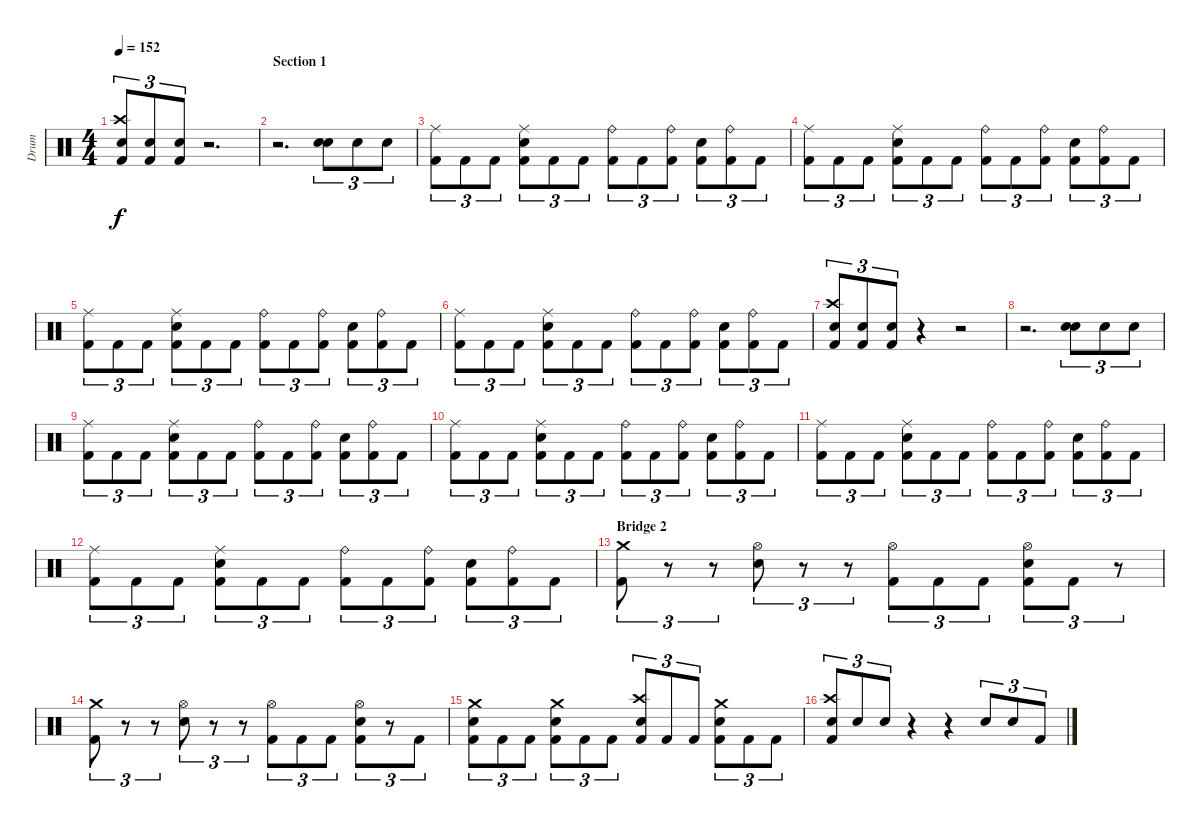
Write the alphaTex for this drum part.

\track ("Drum" "Drum") {instrument percussion}
\staff {score}
\articulation defaults
\ts (4 4)
\tempo 152
\clef neutral
\ks c
("Kick (hit) 2" "Crash high (hit)" "Electric Snare (hit)").8{tu (3 2) dy f} ("Electric Snare (hit)" "Kick (hit) 2").8{tu (3 2)} ("Kick (hit) 2" "Electric Snare (hit)").8{tu (3 2)} r.2{d} |
\section ("" "Section 1")
r.2{d} ("Electric Snare (hit)" "Electric Snare (hit)").8{tu (3 2)} "Electric Snare (hit)".8{tu (3 2)} "Electric Snare (hit)".8{tu (3 2)} |
("Kick (hit) 2" "Ride (middle)").8{tu (3 2)} "Kick (hit) 2".8{tu (3 2)} "Kick (hit) 2".8{tu (3 2)} ("Ride (middle)" "Electric Snare (hit)" "Kick (hit) 2").8{tu (3 2)} "Kick (hit) 2".8{tu (3 2)} "Kick (hit) 2".8{tu (3 2)} ("Kick (hit) 2" "Ride (bell)").8{tu (3 2)} "Kick (hit) 2".8{tu (3 2)} ("Kick (hit) 2" "Ride (bell)").8{tu (3 2)} ("Electric Snare (hit)" "Kick (hit) 2").8{tu (3 2)} ("Kick (hit) 2" "Ride (bell)").8{tu (3 2)} "Kick (hit) 2".8{tu (3 2)} |
("Ride (middle)" "Kick (hit) 2").8{tu (3 2)} "Kick (hit) 2".8{tu (3 2)} "Kick (hit) 2".8{tu (3 2)} ("Electric Snare (hit)" "Ride (middle)" "Kick (hit) 2").8{tu (3 2)} "Kick (hit) 2".8{tu (3 2)} "Kick (hit) 2".8{tu (3 2)} ("Kick (hit) 2" "Ride (bell)").8{tu (3 2)} "Kick (hit) 2".8{tu (3 2)} ("Kick (hit) 2" "Ride (bell)").8{tu (3 2)} ("Electric Snare (hit)" "Kick (hit) 2").8{tu (3 2)} ("Kick (hit) 2" "Ride (bell)").8{tu (3 2)} "Kick (hit) 2".8{tu (3 2)} |
("Kick (hit) 2" "Ride (middle)").8{tu (3 2)} "Kick (hit) 2".8{tu (3 2)} "Kick (hit) 2".8{tu (3 2)} ("Electric Snare (hit)" "Ride (middle)" "Kick (hit) 2").8{tu (3 2)} "Kick (hit) 2".8{tu (3 2)} "Kick (hit) 2".8{tu (3 2)} ("Kick (hit) 2" "Ride (bell)").8{tu (3 2)} "Kick (hit) 2".8{tu (3 2)} ("Kick (hit) 2" "Ride (bell)").8{tu (3 2)} ("Electric Snare (hit)" "Kick (hit) 2").8{tu (3 2)} ("Kick (hit) 2" "Ride (bell)").8{tu (3 2)} "Kick (hit) 2".8{tu (3 2)} |
("Ride (middle)" "Kick (hit) 2").8{tu (3 2)} "Kick (hit) 2".8{tu (3 2)} "Kick (hit) 2".8{tu (3 2)} ("Electric Snare (hit)" "Ride (middle)" "Kick (hit) 2").8{tu (3 2)} "Kick (hit) 2".8{tu (3 2)} "Kick (hit) 2".8{tu (3 2)} ("Kick (hit) 2" "Ride (bell)").8{tu (3 2)} "Kick (hit) 2".8{tu (3 2)} ("Kick (hit) 2" "Ride (bell)").8{tu (3 2)} ("Electric Snare (hit)" "Kick (hit) 2").8{tu (3 2)} ("Kick (hit) 2" "Ride (bell)").8{tu (3 2)} "Kick (hit) 2".8{tu (3 2)} |
\section ("" "")
("Crash high (hit)" "Electric Snare (hit)" "Kick (hit) 2").8{tu (3 2)} ("Electric Snare (hit)" "Kick (hit) 2").8{tu (3 2)} ("Kick (hit) 2" "Electric Snare (hit)").8{tu (3 2)} r.4 r.2 |
r.2{d} ("Electric Snare (hit)" "Electric Snare (hit)").8{tu (3 2)} "Electric Snare (hit)".8{tu (3 2)} "Electric Snare (hit)".8{tu (3 2)} |
("Kick (hit) 2" "Ride (middle)").8{tu (3 2)} "Kick (hit) 2".8{tu (3 2)} "Kick (hit) 2".8{tu (3 2)} ("Ride (middle)" "Kick (hit) 2" "Electric Snare (hit)").8{tu (3 2)} "Kick (hit) 2".8{tu (3 2)} "Kick (hit) 2".8{tu (3 2)} ("Kick (hit) 2" "Ride (bell)").8{tu (3 2)} "Kick (hit) 2".8{tu (3 2)} ("Kick (hit) 2" "Ride (bell)").8{tu (3 2)} ("Electric Snare (hit)" "Kick (hit) 2").8{tu (3 2)} ("Kick (hit) 2" "Ride (bell)").8{tu (3 2)} "Kick (hit) 2".8{tu (3 2)} |
("Kick (hit) 2" "Ride (middle)").8{tu (3 2)} "Kick (hit) 2".8{tu (3 2)} "Kick (hit) 2".8{tu (3 2)} ("Electric Snare (hit)" "Kick (hit) 2" "Ride (middle)").8{tu (3 2)} "Kick (hit) 2".8{tu (3 2)} "Kick (hit) 2".8{tu (3 2)} ("Kick (hit) 2" "Ride (bell)").8{tu (3 2)} "Kick (hit) 2".8{tu (3 2)} ("Kick (hit) 2" "Ride (bell)").8{tu (3 2)} ("Electric Snare (hit)" "Kick (hit) 2").8{tu (3 2)} ("Kick (hit) 2" "Ride (bell)").8{tu (3 2)} "Kick (hit) 2".8{tu (3 2)} |
("Kick (hit) 2" "Ride (middle)").8{tu (3 2)} "Kick (hit) 2".8{tu (3 2)} "Kick (hit) 2".8{tu (3 2)} ("Ride (middle)" "Kick (hit) 2" "Electric Snare (hit)").8{tu (3 2)} "Kick (hit) 2".8{tu (3 2)} "Kick (hit) 2".8{tu (3 2)} ("Kick (hit) 2" "Ride (bell)").8{tu (3 2)} "Kick (hit) 2".8{tu (3 2)} ("Kick (hit) 2" "Ride (bell)").8{tu (3 2)} ("Electric Snare (hit)" "Kick (hit) 2").8{tu (3 2)} ("Kick (hit) 2" "Ride (bell)").8{tu (3 2)} "Kick (hit) 2".8{tu (3 2)} |
("Ride (middle)" "Kick (hit) 2").8{tu (3 2)} "Kick (hit) 2".8{tu (3 2)} "Kick (hit) 2".8{tu (3 2)} ("Electric Snare (hit)" "Kick (hit) 2" "Ride (middle)").8{tu (3 2)} "Kick (hit) 2".8{tu (3 2)} "Kick (hit) 2".8{tu (3 2)} ("Ride (bell)" "Kick (hit) 2").8{tu (3 2)} "Kick (hit) 2".8{tu (3 2)} ("Ride (bell)" "Kick (hit) 2").8{tu (3 2)} ("Electric Snare (hit)" "Kick (hit) 2").8{tu (3 2)} ("Ride (bell)" "Kick (hit) 2").8{tu (3 2)} "Kick (hit) 2".8{tu (3 2)} |
\section ("" "Bridge 2")
("Crash medium (hit)" "Kick (hit) 2").8{tu (3 2)} r.8{tu (3 2)} r.8{tu (3 2)} ("Hi-Hat (open)" "Electric Snare (hit)").8{tu (3 2)} r.8{tu (3 2)} r.8{tu (3 2)} ("Kick (hit) 2" "Hi-Hat (open)").8{tu (3 2)} "Kick (hit) 2".8{tu (3 2)} "Kick (hit) 2".8{tu (3 2)} ("Kick (hit) 2" "Hi-Hat (open)" "Electric Snare (hit)").8{tu (3 2)} "Kick (hit) 2".8{tu (3 2)} r.8{tu (3 2)} |
("Kick (hit) 2" "Crash medium (hit)").8{tu (3 2)} r.8{tu (3 2)} r.8{tu (3 2)} ("Hi-Hat (open)" "Electric Snare (hit)").8{tu (3 2)} r.8{tu (3 2)} r.8{tu (3 2)} ("Hi-Hat (open)" "Kick (hit) 2").8{tu (3 2)} "Kick (hit) 2".8{tu (3 2)} "Kick (hit) 2".8{tu (3 2)} ("Electric Snare (hit)" "Hi-Hat (open)" "Kick (hit) 2").8{tu (3 2)} r.8{tu (3 2)} "Kick (hit) 2".8{tu (3 2)} |
("Kick (hit) 2" "Electric Snare (hit)" "Crash medium (hit)").8{tu (3 2)} "Kick (hit) 2".8{tu (3 2)} "Kick (hit) 2".8{tu (3 2)} ("Kick (hit) 2" "Crash medium (hit)" "Electric Snare (hit)").8{tu (3 2)} "Kick (hit) 2".8{tu (3 2)} "Kick (hit) 2".8{tu (3 2)} ("Kick (hit) 2" "Electric Snare (hit)" "Crash high (hit)").8{tu (3 2)} "Kick (hit) 2".8{tu (3 2)} "Kick (hit) 2".8{tu (3 2)} ("Kick (hit) 2" "Electric Snare (hit)" "Crash medium (hit)").8{tu (3 2)} "Kick (hit) 2".8{tu (3 2)} "Kick (hit) 2".8{tu (3 2)} |
("Crash high (hit)" "Electric Snare (hit)" "Kick (hit) 2").8{tu (3 2)} "Electric Snare (hit)".8{tu (3 2)} "Electric Snare (hit)".8{tu (3 2)} r.4 r.4 "Electric Snare (hit)".8{tu (3 2)} "Electric Snare (hit)".8{tu (3 2)} "Kick (hit) 2".8{tu (3 2)}
